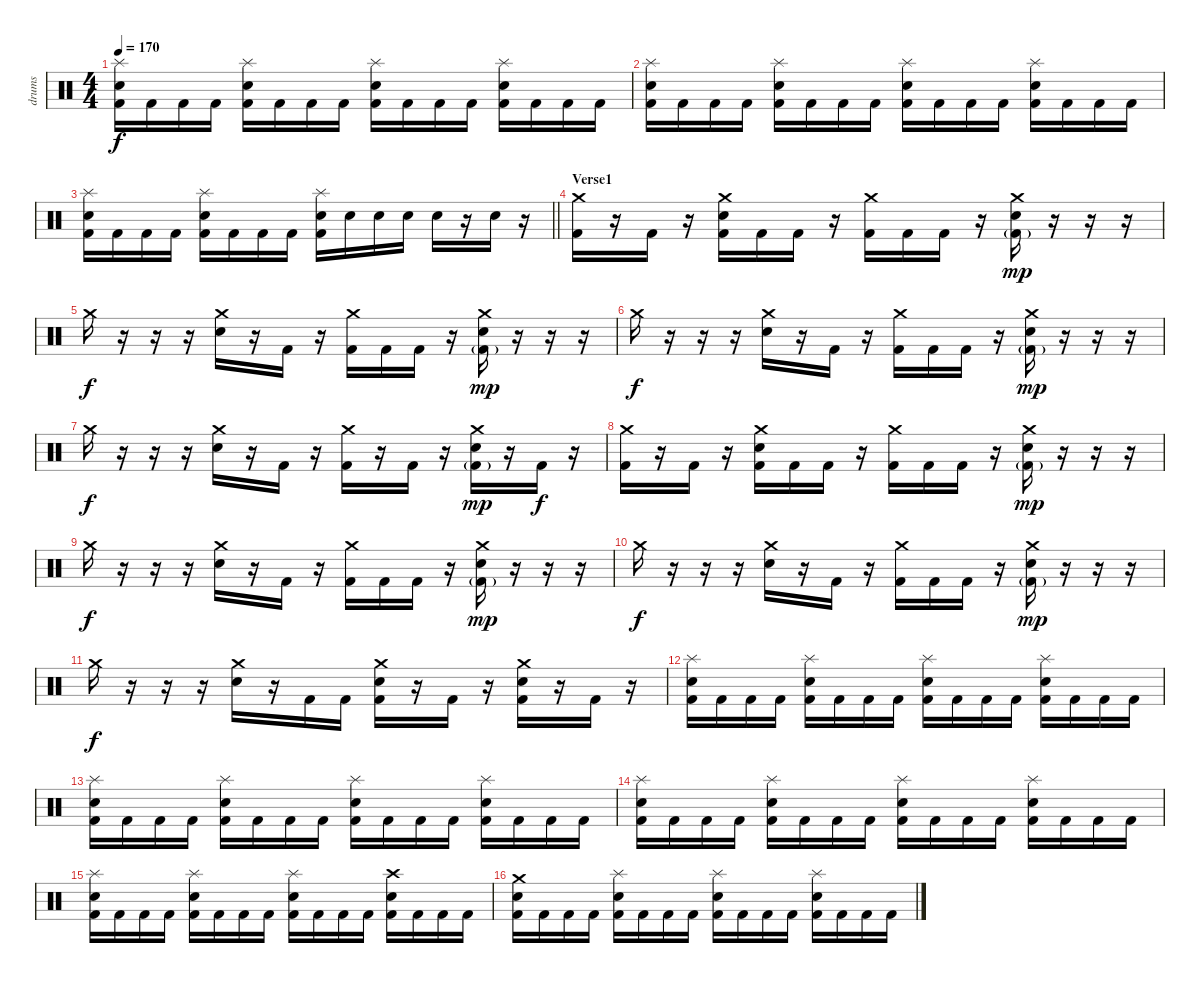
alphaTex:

\track ("drums" "drums") {instrument percussion}
\staff {score}
\articulation defaults
\ts (4 4)
\tempo 170
\clef neutral
\ks c
("Splash (hit)" "Snare (hit) 2" "Kick (hit) 2").16{dy f} "Kick (hit) 2".16 "Kick (hit) 2".16 "Kick (hit) 2".16 ("Splash (hit)" "Snare (hit) 2" "Kick (hit) 2").16 "Kick (hit) 2".16 "Kick (hit) 2".16 "Kick (hit) 2".16 ("Splash (hit)" "Snare (hit) 2" "Kick (hit) 2").16 "Kick (hit) 2".16 "Kick (hit) 2".16 "Kick (hit) 2".16 ("Splash (hit)" "Snare (hit) 2" "Kick (hit) 2").16 "Kick (hit) 2".16 "Kick (hit) 2".16 "Kick (hit) 2".16 |
("Splash (hit)" "Snare (hit) 2" "Kick (hit) 2").16 "Kick (hit) 2".16 "Kick (hit) 2".16 "Kick (hit) 2".16 ("Splash (hit)" "Snare (hit) 2" "Kick (hit) 2").16 "Kick (hit) 2".16 "Kick (hit) 2".16 "Kick (hit) 2".16 ("Splash (hit)" "Snare (hit) 2" "Kick (hit) 2").16 "Kick (hit) 2".16 "Kick (hit) 2".16 "Kick (hit) 2".16 ("Splash (hit)" "Snare (hit) 2" "Kick (hit) 2").16 "Kick (hit) 2".16 "Kick (hit) 2".16 "Kick (hit) 2".16 |
\barLineRight lightlight
("Splash (hit)" "Snare (hit) 2" "Kick (hit) 2").16 "Kick (hit) 2".16 "Kick (hit) 2".16 "Kick (hit) 2".16 ("Splash (hit)" "Snare (hit) 2" "Kick (hit) 2").16 "Kick (hit) 2".16 "Kick (hit) 2".16 "Kick (hit) 2".16 ("Splash (hit)" "Snare (hit) 2" "Kick (hit) 2").16 "Snare (hit) 2".16 "Snare (hit) 2".16 "Snare (hit) 2".16 "Snare (hit) 2".16 r.16 "Snare (hit) 2".16 r.16 |
\section ("" "Verse1")
("Crash medium (hit)" "Kick (hit) 2").16 r.16 "Kick (hit) 2".16 r.16 ("Crash medium (hit)" "Snare (hit) 2" "Kick (hit) 2").16 "Kick (hit) 2".16 "Kick (hit) 2".16 r.16 ("Crash medium (hit)" "Kick (hit) 2").16 "Kick (hit) 2".16 "Kick (hit) 2".16 r.16 ("Crash medium (hit)" "Snare (hit) 2" "Kick (hit) 2"{g}).16{dy mp} r.16 r.16 r.16 |
"Crash medium (hit)".16{dy f} r.16 r.16 r.16 ("Crash medium (hit)" "Snare (hit) 2").16 r.16 "Kick (hit) 2".16 r.16 ("Crash medium (hit)" "Kick (hit) 2").16 "Kick (hit) 2".16 "Kick (hit) 2".16 r.16 ("Crash medium (hit)" "Snare (hit) 2" "Kick (hit) 2"{g}).16{dy mp} r.16 r.16 r.16 |
"Crash medium (hit)".16{dy f} r.16 r.16 r.16 ("Crash medium (hit)" "Snare (hit) 2").16 r.16 "Kick (hit) 2".16 r.16 ("Crash medium (hit)" "Kick (hit) 2").16 "Kick (hit) 2".16 "Kick (hit) 2".16 r.16 ("Crash medium (hit)" "Snare (hit) 2" "Kick (hit) 2"{g}).16{dy mp} r.16 r.16 r.16 |
"Crash medium (hit)".16{dy f} r.16 r.16 r.16 ("Crash medium (hit)" "Snare (hit) 2").16 r.16 "Kick (hit) 2".16 r.16 ("Crash medium (hit)" "Kick (hit) 2").16 r.16 "Kick (hit) 2".16 r.16 ("Crash medium (hit)" "Snare (hit) 2" "Kick (hit) 2"{g}).16{dy mp} r.16 "Kick (hit) 2".16{dy f} r.16 |
("Crash medium (hit)" "Kick (hit) 2").16 r.16 "Kick (hit) 2".16 r.16 ("Crash medium (hit)" "Snare (hit) 2" "Kick (hit) 2").16 "Kick (hit) 2".16 "Kick (hit) 2".16 r.16 ("Crash medium (hit)" "Kick (hit) 2").16 "Kick (hit) 2".16 "Kick (hit) 2".16 r.16 ("Crash medium (hit)" "Snare (hit) 2" "Kick (hit) 2"{g}).16{dy mp} r.16 r.16 r.16 |
"Crash medium (hit)".16{dy f} r.16 r.16 r.16 ("Crash medium (hit)" "Snare (hit) 2").16 r.16 "Kick (hit) 2".16 r.16 ("Crash medium (hit)" "Kick (hit) 2").16 "Kick (hit) 2".16 "Kick (hit) 2".16 r.16 ("Crash medium (hit)" "Snare (hit) 2" "Kick (hit) 2"{g}).16{dy mp} r.16 r.16 r.16 |
"Crash medium (hit)".16{dy f} r.16 r.16 r.16 ("Crash medium (hit)" "Snare (hit) 2").16 r.16 "Kick (hit) 2".16 r.16 ("Crash medium (hit)" "Kick (hit) 2").16 "Kick (hit) 2".16 "Kick (hit) 2".16 r.16 ("Crash medium (hit)" "Snare (hit) 2" "Kick (hit) 2"{g}).16{dy mp} r.16 r.16 r.16 |
"Crash medium (hit)".16{dy f} r.16 r.16 r.16 ("Crash medium (hit)" "Snare (hit) 2").16 r.16 "Kick (hit) 2".16 "Kick (hit) 2".16 ("Crash medium (hit)" "Snare (hit) 2" "Kick (hit) 2").16 r.16 "Kick (hit) 2".16 r.16 ("Crash medium (hit)" "Snare (hit) 2" "Kick (hit) 2").16 r.16 "Kick (hit) 2".16 r.16 |
("Splash (hit)" "Snare (hit) 2" "Kick (hit) 2").16 "Kick (hit) 2".16 "Kick (hit) 2".16 "Kick (hit) 2".16 ("Splash (hit)" "Snare (hit) 2" "Kick (hit) 2").16 "Kick (hit) 2".16 "Kick (hit) 2".16 "Kick (hit) 2".16 ("Splash (hit)" "Snare (hit) 2" "Kick (hit) 2").16 "Kick (hit) 2".16 "Kick (hit) 2".16 "Kick (hit) 2".16 ("Splash (hit)" "Snare (hit) 2" "Kick (hit) 2").16 "Kick (hit) 2".16 "Kick (hit) 2".16 "Kick (hit) 2".16 |
("Splash (hit)" "Snare (hit) 2" "Kick (hit) 2").16 "Kick (hit) 2".16 "Kick (hit) 2".16 "Kick (hit) 2".16 ("Splash (hit)" "Snare (hit) 2" "Kick (hit) 2").16 "Kick (hit) 2".16 "Kick (hit) 2".16 "Kick (hit) 2".16 ("Splash (hit)" "Snare (hit) 2" "Kick (hit) 2").16 "Kick (hit) 2".16 "Kick (hit) 2".16 "Kick (hit) 2".16 ("Splash (hit)" "Snare (hit) 2" "Kick (hit) 2").16 "Kick (hit) 2".16 "Kick (hit) 2".16 "Kick (hit) 2".16 |
("Splash (hit)" "Snare (hit) 2" "Kick (hit) 2").16 "Kick (hit) 2".16 "Kick (hit) 2".16 "Kick (hit) 2".16 ("Splash (hit)" "Snare (hit) 2" "Kick (hit) 2").16 "Kick (hit) 2".16 "Kick (hit) 2".16 "Kick (hit) 2".16 ("Splash (hit)" "Snare (hit) 2" "Kick (hit) 2").16 "Kick (hit) 2".16 "Kick (hit) 2".16 "Kick (hit) 2".16 ("Splash (hit)" "Snare (hit) 2" "Kick (hit) 2").16 "Kick (hit) 2".16 "Kick (hit) 2".16 "Kick (hit) 2".16 |
("Splash (hit)" "Snare (hit) 2" "Kick (hit) 2").16 "Kick (hit) 2".16 "Kick (hit) 2".16 "Kick (hit) 2".16 ("Splash (hit)" "Snare (hit) 2" "Kick (hit) 2").16 "Kick (hit) 2".16 "Kick (hit) 2".16 "Kick (hit) 2".16 ("Splash (hit)" "Snare (hit) 2" "Kick (hit) 2").16 "Kick (hit) 2".16 "Kick (hit) 2".16 "Kick (hit) 2".16 ("Crash high (hit)" "Snare (hit) 2" "Kick (hit) 2").16 "Kick (hit) 2".16 "Kick (hit) 2".16 "Kick (hit) 2".16 |
("Crash medium (hit)" "Snare (hit) 2" "Kick (hit) 2").16 "Kick (hit) 2".16 "Kick (hit) 2".16 "Kick (hit) 2".16 ("Splash (hit)" "Snare (hit) 2" "Kick (hit) 2").16 "Kick (hit) 2".16 "Kick (hit) 2".16 "Kick (hit) 2".16 ("Splash (hit)" "Snare (hit) 2" "Kick (hit) 2").16 "Kick (hit) 2".16 "Kick (hit) 2".16 "Kick (hit) 2".16 ("Splash (hit)" "Snare (hit) 2" "Kick (hit) 2").16 "Kick (hit) 2".16 "Kick (hit) 2".16 "Kick (hit) 2".16
